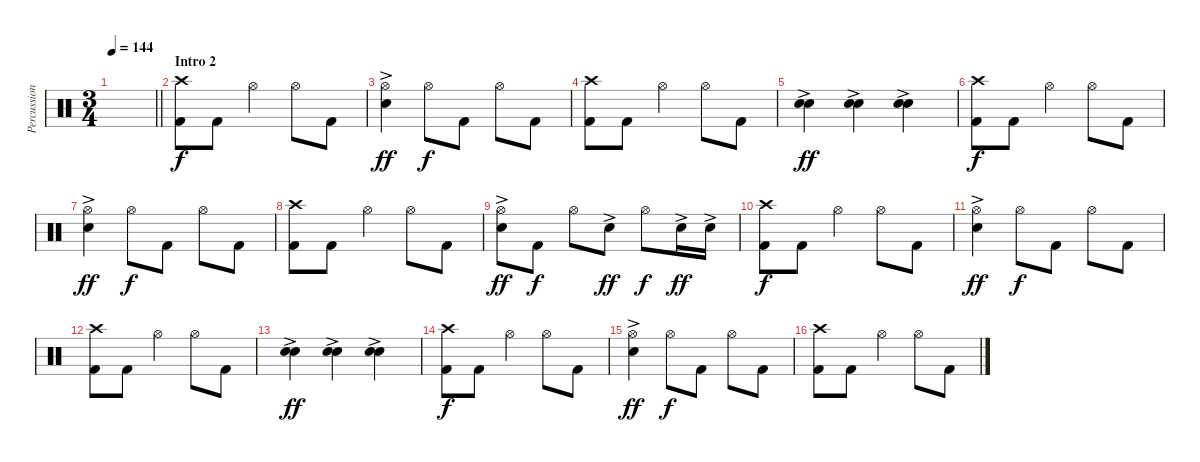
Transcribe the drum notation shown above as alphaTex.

\track ("Percussion" "Percussion") {instrument percussion}
\staff {score}
\articulation defaults
\ts (3 4)
\tempo 144
\clef neutral
\barLineRight lightlight
\ks c
|
\section ("" "Intro 2")
("Crash high (hit)" "Kick (hit) 2").8 "Kick (hit) 2".8 "Hi-Hat (open)".4 "Hi-Hat (open)".8 "Kick (hit) 2".8 |
("Hi-Hat (open)" "Electric Snare (hit)"{ac}).4{dy ff} "Hi-Hat (open)".8{dy f} "Kick (hit) 2".8 "Hi-Hat (open)".8 "Kick (hit) 2".8 |
("Crash high (hit)" "Kick (hit) 2").8 "Kick (hit) 2".8 "Hi-Hat (open)".4 "Hi-Hat (open)".8 "Kick (hit) 2".8 |
("Electric Snare (hit)"{ac} "Electric Snare (hit)").4{bu 120 dy ff} ("Electric Snare (hit)"{ac} "Electric Snare (hit)").4{bu 120} ("Electric Snare (hit)"{ac} "Electric Snare (hit)").4{bu 120} |
("Crash high (hit)" "Kick (hit) 2").8{dy f} "Kick (hit) 2".8 "Hi-Hat (open)".4 "Hi-Hat (open)".8 "Kick (hit) 2".8 |
("Hi-Hat (open)" "Electric Snare (hit)"{ac}).4{dy ff} "Hi-Hat (open)".8{dy f} "Kick (hit) 2".8 "Hi-Hat (open)".8 "Kick (hit) 2".8 |
("Crash high (hit)" "Kick (hit) 2").8 "Kick (hit) 2".8 "Hi-Hat (open)".4 "Hi-Hat (open)".8 "Kick (hit) 2".8 |
("Hi-Hat (open)" "Electric Snare (hit)"{ac}).8{dy ff} "Kick (hit) 2".8{dy f} "Hi-Hat (open)".8 "Electric Snare (hit)"{ac}.8{dy ff} "Hi-Hat (open)".8{dy f} "Electric Snare (hit)"{ac}.16{dy ff} "Electric Snare (hit)"{ac}.16 |
("Crash high (hit)" "Kick (hit) 2").8{dy f} "Kick (hit) 2".8 "Hi-Hat (open)".4 "Hi-Hat (open)".8 "Kick (hit) 2".8 |
("Hi-Hat (open)" "Electric Snare (hit)"{ac}).4{dy ff} "Hi-Hat (open)".8{dy f} "Kick (hit) 2".8 "Hi-Hat (open)".8 "Kick (hit) 2".8 |
("Crash high (hit)" "Kick (hit) 2").8 "Kick (hit) 2".8 "Hi-Hat (open)".4 "Hi-Hat (open)".8 "Kick (hit) 2".8 |
("Electric Snare (hit)"{ac} "Electric Snare (hit)").4{bu 120 dy ff} ("Electric Snare (hit)"{ac} "Electric Snare (hit)").4{bu 120} ("Electric Snare (hit)"{ac} "Electric Snare (hit)").4{bu 120} |
("Crash high (hit)" "Kick (hit) 2").8{dy f} "Kick (hit) 2".8 "Hi-Hat (open)".4 "Hi-Hat (open)".8 "Kick (hit) 2".8 |
("Hi-Hat (open)" "Electric Snare (hit)"{ac}).4{dy ff} "Hi-Hat (open)".8{dy f} "Kick (hit) 2".8 "Hi-Hat (open)".8 "Kick (hit) 2".8 |
("Crash high (hit)" "Kick (hit) 2").8 "Kick (hit) 2".8 "Hi-Hat (open)".4 "Hi-Hat (open)".8 "Kick (hit) 2".8
